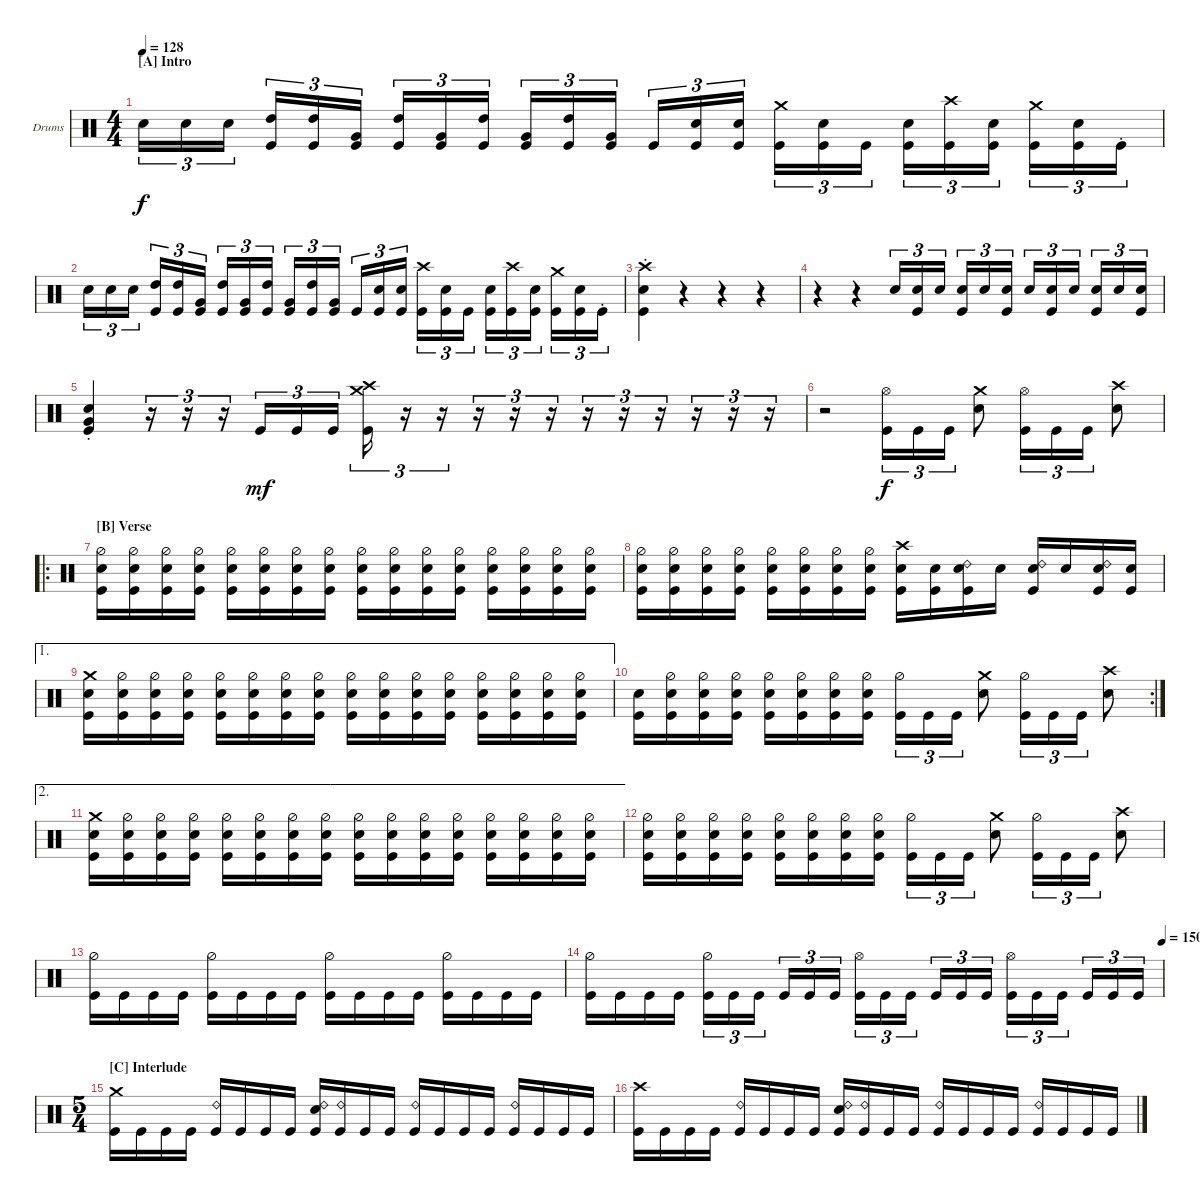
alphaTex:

\bracketExtendMode groupsimilarinstruments
\firstSystemTrackNameOrientation horizontal
\otherSystemsTrackNameOrientation horizontal
\track ("Drumkit" "Drums") {instrument percussion}
\staff {score}
\articulation defaults
\ts (4 4)
\section ("A" "Intro")
\tempo 128
\clef neutral
\ks c "Snare (hit) 2".16{tu (3 2) dy f} "Snare (hit) 2".16{tu (3 2)} "Snare (hit) 2".16{tu (3 2)}
("High Tom (hit)" "Kick (hit)").16{tu (3 2)} ("High Tom (hit)" "Kick (hit)").16{tu (3 2)} ("Very Low Tom (hit)" "Kick (hit)").16{tu (3 2)} ("High Tom (hit)" "Kick (hit)").16{tu (3 2)} ("Very Low Tom (hit)" "Kick (hit)").16{tu (3 2)} ("High Tom (hit)" "Kick (hit)").16{tu (3 2)} ("Very Low Tom (hit)" "Kick (hit)").16{tu (3 2)} ("High Tom (hit)" "Kick (hit)").16{tu (3 2)} ("Very Low Tom (hit)" "Kick (hit)").16{tu (3 2)} "Kick (hit)".16{tu (3 2)} ("Snare (hit) 2" "Kick (hit)").16{tu (3 2)} ("Snare (hit) 2" "Kick (hit)").16{tu (3 2)} ("Kick (hit)" "Crash medium (hit)").16{tu (3 2)} ("Snare (hit) 2" "Kick (hit)").16{tu (3 2)} "Kick (hit)".16{tu (3 2)} ("Snare (hit) 2" "Kick (hit)").16{tu (3 2)} ("Kick (hit)" "Crash high (hit)").16{tu (3 2)} ("Snare (hit) 2" "Kick (hit)").16{tu (3 2)} ("Kick (hit)" "Crash medium (hit)").16{tu (3 2)} ("Snare (hit) 2" "Kick (hit)").16{tu (3 2)} "Kick (hit)"{st}.16{tu (3 2)} |
"Snare (hit) 2".16{tu (3 2)} "Snare (hit) 2".16{tu (3 2)} "Snare (hit) 2".16{tu (3 2)} ("High Tom (hit)" "Kick (hit)").16{tu (3 2)} ("High Tom (hit)" "Kick (hit)").16{tu (3 2)} ("Very Low Tom (hit)" "Kick (hit)").16{tu (3 2)} ("High Tom (hit)" "Kick (hit)").16{tu (3 2)} ("Very Low Tom (hit)" "Kick (hit)").16{tu (3 2)} ("High Tom (hit)" "Kick (hit)").16{tu (3 2)} ("Very Low Tom (hit)" "Kick (hit)").16{tu (3 2)} ("High Tom (hit)" "Kick (hit)").16{tu (3 2)} ("Very Low Tom (hit)" "Kick (hit)").16{tu (3 2)} "Kick (hit)".16{tu (3 2)} ("Snare (hit) 2" "Kick (hit)").16{tu (3 2)} ("Snare (hit) 2" "Kick (hit)").16{tu (3 2)} ("Kick (hit)" "Crash high (hit)").16{tu (3 2)} ("Snare (hit) 2" "Kick (hit)").16{tu (3 2)} "Kick (hit)".16{tu (3 2)} ("Snare (hit) 2" "Kick (hit)").16{tu (3 2)} ("Kick (hit)" "Crash high (hit)").16{tu (3 2)} ("Snare (hit) 2" "Kick (hit)").16{tu (3 2)} ("Kick (hit)" "Crash medium (hit)").16{tu (3 2)} ("Snare (hit) 2" "Kick (hit)").16{tu (3 2)} "Kick (hit)"{st}.16{tu (3 2)} |
("Snare (hit) 2" "Kick (hit)" "Crash high (hit)"{st}).4 r.4 r.4 r.4 |
r.4 r.4 "Snare (hit) 2".16{tu (3 2)} ("Snare (hit) 2" "Kick (hit)").16{tu (3 2)} "Snare (hit) 2".16{tu (3 2)} ("Snare (hit) 2" "Kick (hit)").16{tu (3 2)} "Snare (hit) 2".16{tu (3 2)} ("Snare (hit) 2" "Kick (hit)").16{tu (3 2)} "Snare (hit) 2".16{tu (3 2)} ("Snare (hit) 2" "Kick (hit)").16{tu (3 2)} "Snare (hit) 2".16{tu (3 2)} ("Snare (hit) 2" "Kick (hit)").16{tu (3 2)} "Snare (hit) 2".16{tu (3 2)} ("Snare (hit) 2" "Kick (hit)").16{tu (3 2)} |
("Very Low Tom (hit)"{st} "Snare (hit) 2" "Kick (hit)").4 r.16{tu (3 2)} r.16{tu (3 2)} r.16{tu (3 2)} "Kick (hit)".16{tu (3 2) dy mf} "Kick (hit)".16{tu (3 2)} "Kick (hit)".16{tu (3 2)} ("Kick (hit)" "Crash medium (hit)" "Crash high (hit)").16{tu (3 2)} r.16{tu (3 2)} r.16{tu (3 2)} r.16{tu (3 2)} r.16{tu (3 2)} r.16{tu (3 2)} r.16{tu (3 2)} r.16{tu (3 2)} r.16{tu (3 2)} r.16{tu (3 2)} r.16{tu (3 2)} r.16{tu (3 2)} |
r.2 ("Hi-Hat (open)" "Kick (hit)").16{tu (3 2) dy f} "Kick (hit)".16{tu (3 2)} "Kick (hit)".16{tu (3 2)} ("Crash medium (hit)" "Snare (hit) 2").8 ("Hi-Hat (open)" "Kick (hit)").16{tu (3 2)} "Kick (hit)".16{tu (3 2)} "Kick (hit)".16{tu (3 2)} ("Crash high (hit)" "Snare (hit) 2").8 |
\ro
\section ("B" "Verse")
("Hi-Hat (half)" "Snare (hit) 2" "Kick (hit)").16 ("Hi-Hat (half)" "Snare (hit) 2" "Kick (hit)").16 ("Hi-Hat (half)" "Snare (hit) 2" "Kick (hit)").16 ("Hi-Hat (half)" "Snare (hit) 2" "Kick (hit)").16 ("Hi-Hat (half)" "Snare (hit) 2" "Kick (hit)").16 ("Hi-Hat (half)" "Snare (hit) 2" "Kick (hit)").16 ("Hi-Hat (half)" "Snare (hit) 2" "Kick (hit)").16 ("Hi-Hat (half)" "Snare (hit) 2" "Kick (hit)").16 ("Hi-Hat (half)" "Snare (hit) 2" "Kick (hit)").16 ("Hi-Hat (half)" "Snare (hit) 2" "Kick (hit)").16 ("Hi-Hat (half)" "Snare (hit) 2" "Kick (hit)").16 ("Hi-Hat (half)" "Snare (hit) 2" "Kick (hit)").16 ("Hi-Hat (half)" "Snare (hit) 2" "Kick (hit)").16 ("Hi-Hat (half)" "Snare (hit) 2" "Kick (hit)").16 ("Hi-Hat (half)" "Snare (hit) 2" "Kick (hit)").16 ("Hi-Hat (half)" "Snare (hit) 2" "Kick (hit)").16 |
("Hi-Hat (half)" "Snare (hit) 2" "Kick (hit)").16 ("Hi-Hat (half)" "Snare (hit) 2" "Kick (hit)").16 ("Hi-Hat (half)" "Snare (hit) 2" "Kick (hit)").16 ("Hi-Hat (half)" "Snare (hit) 2" "Kick (hit)").16 ("Hi-Hat (half)" "Snare (hit) 2" "Kick (hit)").16 ("Hi-Hat (half)" "Snare (hit) 2" "Kick (hit)").16 ("Hi-Hat (half)" "Snare (hit) 2" "Kick (hit)").16 ("Hi-Hat (half)" "Snare (hit) 2" "Kick (hit)").16 ("Crash high (hit)" "Snare (hit) 2" "Kick (hit)").16 ("Snare (hit) 2" "Kick (hit)").16 ("Ride (bell) 2" "Snare (hit) 2" "Kick (hit)").16 "Snare (hit) 2".16 ("Ride (bell) 2" "Snare (hit) 2" "Kick (hit)").16 "Snare (hit) 2".16 ("Ride (bell) 2" "Snare (hit) 2" "Kick (hit)").16 ("Snare (hit) 2" "Kick (hit)").16 |
\ae 1
("Crash medium (hit)" "Snare (hit) 2" "Kick (hit)").16 ("Hi-Hat (half)" "Snare (hit) 2" "Kick (hit)").16 ("Hi-Hat (half)" "Snare (hit) 2" "Kick (hit)").16 ("Hi-Hat (half)" "Snare (hit) 2" "Kick (hit)").16 ("Hi-Hat (half)" "Snare (hit) 2" "Kick (hit)").16 ("Hi-Hat (half)" "Snare (hit) 2" "Kick (hit)").16 ("Hi-Hat (half)" "Snare (hit) 2" "Kick (hit)").16 ("Hi-Hat (half)" "Snare (hit) 2" "Kick (hit)").16 ("Hi-Hat (half)" "Snare (hit) 2" "Kick (hit)").16 ("Hi-Hat (half)" "Snare (hit) 2" "Kick (hit)").16 ("Hi-Hat (half)" "Snare (hit) 2" "Kick (hit)").16 ("Hi-Hat (half)" "Snare (hit) 2" "Kick (hit)").16 ("Hi-Hat (half)" "Snare (hit) 2" "Kick (hit)").16 ("Hi-Hat (half)" "Snare (hit) 2" "Kick (hit)").16 ("Hi-Hat (half)" "Snare (hit) 2" "Kick (hit)").16 ("Hi-Hat (half)" "Snare (hit) 2" "Kick (hit)").16 |
\rc 2
("Snare (hit) 2" "Kick (hit)").16 ("Hi-Hat (half)" "Snare (hit) 2" "Kick (hit)").16 ("Hi-Hat (half)" "Snare (hit) 2" "Kick (hit)").16 ("Hi-Hat (half)" "Snare (hit) 2" "Kick (hit)").16 ("Hi-Hat (half)" "Snare (hit) 2" "Kick (hit)").16 ("Hi-Hat (half)" "Snare (hit) 2" "Kick (hit)").16 ("Hi-Hat (half)" "Snare (hit) 2" "Kick (hit)").16 ("Hi-Hat (half)" "Snare (hit) 2" "Kick (hit)").16 ("Hi-Hat (half)" "Kick (hit)").16{tu (3 2)} "Kick (hit)".16{tu (3 2)} "Kick (hit)".16{tu (3 2)} ("Crash medium (hit)" "Snare (hit) 2").8 ("Hi-Hat (half)" "Kick (hit)").16{tu (3 2)} "Kick (hit)".16{tu (3 2)} "Kick (hit)".16{tu (3 2)} ("Crash high (hit)" "Snare (hit) 2").8 |
\ae 2
("Crash medium (hit)" "Snare (hit) 2" "Kick (hit)").16 ("Hi-Hat (half)" "Snare (hit) 2" "Kick (hit)").16 ("Hi-Hat (half)" "Snare (hit) 2" "Kick (hit)").16 ("Hi-Hat (half)" "Snare (hit) 2" "Kick (hit)").16 ("Hi-Hat (half)" "Snare (hit) 2" "Kick (hit)").16 ("Hi-Hat (half)" "Snare (hit) 2" "Kick (hit)").16 ("Hi-Hat (half)" "Snare (hit) 2" "Kick (hit)").16 ("Hi-Hat (half)" "Snare (hit) 2" "Kick (hit)").16 ("Hi-Hat (half)" "Snare (hit) 2" "Kick (hit)").16 ("Hi-Hat (half)" "Snare (hit) 2" "Kick (hit)").16 ("Hi-Hat (half)" "Snare (hit) 2" "Kick (hit)").16 ("Hi-Hat (half)" "Snare (hit) 2" "Kick (hit)").16 ("Hi-Hat (half)" "Snare (hit) 2" "Kick (hit)").16 ("Hi-Hat (half)" "Snare (hit) 2" "Kick (hit)").16 ("Hi-Hat (half)" "Snare (hit) 2" "Kick (hit)").16 ("Hi-Hat (half)" "Snare (hit) 2" "Kick (hit)").16 |
("Hi-Hat (half)" "Snare (hit) 2" "Kick (hit)").16 ("Hi-Hat (half)" "Snare (hit) 2" "Kick (hit)").16 ("Hi-Hat (half)" "Snare (hit) 2" "Kick (hit)").16 ("Hi-Hat (half)" "Snare (hit) 2" "Kick (hit)").16 ("Hi-Hat (half)" "Snare (hit) 2" "Kick (hit)").16 ("Hi-Hat (half)" "Snare (hit) 2" "Kick (hit)").16 ("Hi-Hat (half)" "Snare (hit) 2" "Kick (hit)").16 ("Hi-Hat (half)" "Snare (hit) 2" "Kick (hit)").16 ("Hi-Hat (half)" "Kick (hit)").16{tu (3 2)} "Kick (hit)".16{tu (3 2)} "Kick (hit)".16{tu (3 2)} ("Crash medium (hit)" "Snare (hit) 2").8 ("Hi-Hat (half)" "Kick (hit)").16{tu (3 2)} "Kick (hit)".16{tu (3 2)} "Kick (hit)".16{tu (3 2)} ("Crash high (hit)" "Snare (hit) 2").8 |
("Hi-Hat (half)" "Kick (hit)").16 "Kick (hit)".16 "Kick (hit)".16 "Kick (hit)".16 ("Hi-Hat (half)" "Kick (hit)").16 "Kick (hit)".16 "Kick (hit)".16 "Kick (hit)".16 ("Hi-Hat (half)" "Kick (hit)").16 "Kick (hit)".16 "Kick (hit)".16 "Kick (hit)".16 ("Hi-Hat (half)" "Kick (hit)").16 "Kick (hit)".16 "Kick (hit)".16 "Kick (hit)".16 |
\tempo (150 1)
("Hi-Hat (half)" "Kick (hit)").16 "Kick (hit)".16 "Kick (hit)".16 "Kick (hit)".16 ("Hi-Hat (half)" "Kick (hit)").16{tu (3 2)} "Kick (hit)".16{tu (3 2)} "Kick (hit)".16{tu (3 2)} "Kick (hit)".16{tu (3 2)} "Kick (hit)".16{tu (3 2)} "Kick (hit)".16{tu (3 2)} ("Hi-Hat (open)" "Kick (hit)").16{tu (3 2)} "Kick (hit)".16{tu (3 2)} "Kick (hit)".16{tu (3 2)} "Kick (hit)".16{tu (3 2)} "Kick (hit)".16{tu (3 2)} "Kick (hit)".16{tu (3 2)} ("Hi-Hat (open)" "Kick (hit)").16{tu (3 2)} "Kick (hit)".16{tu (3 2)} "Kick (hit)".16{tu (3 2)} "Kick (hit)".16{tu (3 2)} "Kick (hit)".16{tu (3 2)} "Kick (hit)".16{tu (3 2)} |
\ts (5 4)
\section ("C" "Interlude")
("Crash medium (hit)" "Kick (hit)").16 "Kick (hit)".16 "Kick (hit)".16 "Kick (hit)".16 ("Kick (hit)" "Ride (bell) 2").16 "Kick (hit)".16 "Kick (hit)".16 "Kick (hit)".16 ("Snare (hit) 2" "Kick (hit)" "Ride (bell) 2").16 ("Kick (hit)" "Ride (bell) 2").16 "Kick (hit)".16 "Kick (hit)".16 ("Ride (bell) 2" "Kick (hit)").16 "Kick (hit)".16 "Kick (hit)".16 "Kick (hit)".16 ("Ride (bell) 2" "Kick (hit)").16 "Kick (hit)".16 "Kick (hit)".16 "Kick (hit)".16 |
("Kick (hit)" "Crash high (hit)").16 "Kick (hit)".16 "Kick (hit)".16 "Kick (hit)".16 ("Kick (hit)" "Ride (bell) 2").16 "Kick (hit)".16 "Kick (hit)".16 "Kick (hit)".16 ("Snare (hit) 2" "Kick (hit)" "Ride (bell) 2").16 ("Kick (hit)" "Ride (bell) 2").16 "Kick (hit)".16 "Kick (hit)".16 ("Ride (bell) 2" "Kick (hit)").16 "Kick (hit)".16 "Kick (hit)".16 "Kick (hit)".16 ("Ride (bell) 2" "Kick (hit)").16 "Kick (hit)".16 "Kick (hit)".16 "Kick (hit)".16
